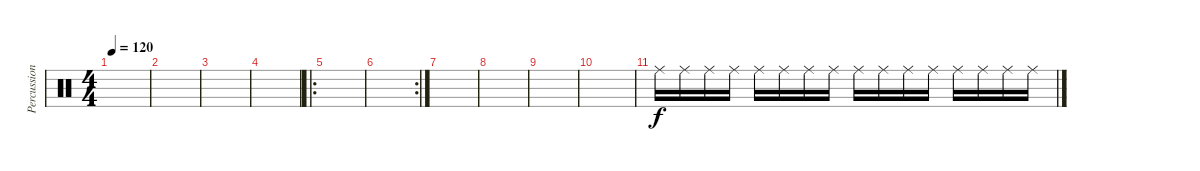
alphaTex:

\track ("Percussion" "Percussion") {instrument percussion}
\staff {score}
\articulation defaults
\ts (4 4)
\tempo 120
\clef neutral
\ks c
|
|
|
|
\ro
|
\rc 2
|
|
|
|
|
"Ride (middle)".16 "Ride (middle)".16 "Ride (middle)".16 "Ride (middle)".16 "Ride (middle)".16 "Ride (middle)".16 "Ride (middle)".16 "Ride (middle)".16 "Ride (middle)".16 "Ride (middle)".16 "Ride (middle)".16 "Ride (middle)".16 "Ride (middle)".16 "Ride (middle)".16 "Ride (middle)".16 "Ride (middle)".16
